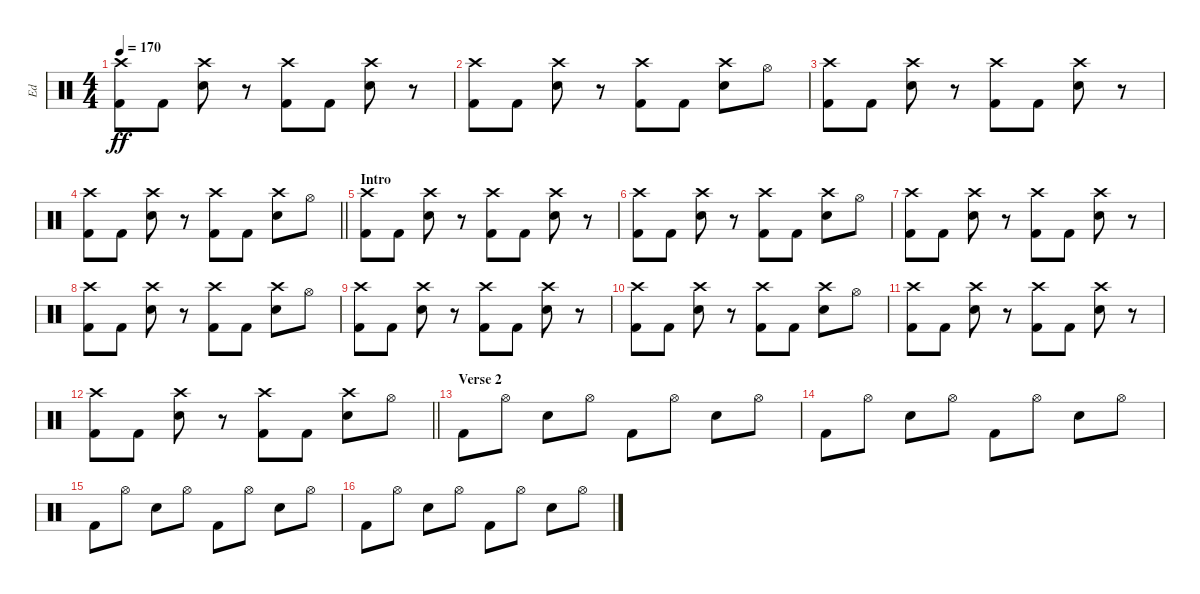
\track ("Ed" "Ed") {instrument percussion}
\staff {score}
\articulation defaults
\ts (4 4)
\tempo 170
\clef neutral
\ks c
("Kick (hit) 2" "Crash high (hit)").8{dy ff} "Kick (hit) 2".8 ("Snare (hit) 2" "Crash high (hit)").8 r.8 ("Kick (hit) 2" "Crash high (hit)").8 "Kick (hit) 2".8 ("Snare (hit) 2" "Crash high (hit)").8 r.8 |
("Kick (hit) 2" "Crash high (hit)").8 "Kick (hit) 2".8 ("Snare (hit) 2" "Crash high (hit)").8 r.8 ("Kick (hit) 2" "Crash high (hit)").8 "Kick (hit) 2".8 ("Snare (hit) 2" "Crash high (hit)").8 "Hi-Hat (open)".8 |
("Kick (hit) 2" "Crash high (hit)").8 "Kick (hit) 2".8 ("Snare (hit) 2" "Crash high (hit)").8 r.8 ("Kick (hit) 2" "Crash high (hit)").8 "Kick (hit) 2".8 ("Snare (hit) 2" "Crash high (hit)").8 r.8 |
\barLineRight lightlight
("Kick (hit) 2" "Crash high (hit)").8 "Kick (hit) 2".8 ("Snare (hit) 2" "Crash high (hit)").8 r.8 ("Kick (hit) 2" "Crash high (hit)").8 "Kick (hit) 2".8 ("Snare (hit) 2" "Crash high (hit)").8 "Hi-Hat (open)".8 |
\section ("" "Intro")
("Kick (hit) 2" "Crash high (hit)").8 "Kick (hit) 2".8 ("Snare (hit) 2" "Crash high (hit)").8 r.8 ("Kick (hit) 2" "Crash high (hit)").8 "Kick (hit) 2".8 ("Snare (hit) 2" "Crash high (hit)").8 r.8 |
("Kick (hit) 2" "Crash high (hit)").8 "Kick (hit) 2".8 ("Snare (hit) 2" "Crash high (hit)").8 r.8 ("Kick (hit) 2" "Crash high (hit)").8 "Kick (hit) 2".8 ("Snare (hit) 2" "Crash high (hit)").8 "Hi-Hat (open)".8 |
("Kick (hit) 2" "Crash high (hit)").8 "Kick (hit) 2".8 ("Snare (hit) 2" "Crash high (hit)").8 r.8 ("Kick (hit) 2" "Crash high (hit)").8 "Kick (hit) 2".8 ("Snare (hit) 2" "Crash high (hit)").8 r.8 |
("Kick (hit) 2" "Crash high (hit)").8 "Kick (hit) 2".8 ("Snare (hit) 2" "Crash high (hit)").8 r.8 ("Kick (hit) 2" "Crash high (hit)").8 "Kick (hit) 2".8 ("Snare (hit) 2" "Crash high (hit)").8 "Hi-Hat (open)".8 |
("Kick (hit) 2" "Crash high (hit)").8 "Kick (hit) 2".8 ("Snare (hit) 2" "Crash high (hit)").8 r.8 ("Kick (hit) 2" "Crash high (hit)").8 "Kick (hit) 2".8 ("Snare (hit) 2" "Crash high (hit)").8 r.8 |
("Kick (hit) 2" "Crash high (hit)").8 "Kick (hit) 2".8 ("Snare (hit) 2" "Crash high (hit)").8 r.8 ("Kick (hit) 2" "Crash high (hit)").8 "Kick (hit) 2".8 ("Snare (hit) 2" "Crash high (hit)").8 "Hi-Hat (open)".8 |
("Kick (hit) 2" "Crash high (hit)").8 "Kick (hit) 2".8 ("Snare (hit) 2" "Crash high (hit)").8 r.8 ("Kick (hit) 2" "Crash high (hit)").8 "Kick (hit) 2".8 ("Snare (hit) 2" "Crash high (hit)").8 r.8 |
\barLineRight lightlight
("Kick (hit) 2" "Crash high (hit)").8 "Kick (hit) 2".8 ("Snare (hit) 2" "Crash high (hit)").8 r.8 ("Kick (hit) 2" "Crash high (hit)").8 "Kick (hit) 2".8 ("Snare (hit) 2" "Crash high (hit)").8 "Hi-Hat (open)".8 |
\section ("" "Verse 2")
"Kick (hit) 2".8 "Hi-Hat (open)".8 "Snare (hit) 2".8 "Hi-Hat (open)".8 "Kick (hit) 2".8 "Hi-Hat (open)".8 "Snare (hit) 2".8 "Hi-Hat (open)".8 |
"Kick (hit) 2".8 "Hi-Hat (open)".8 "Snare (hit) 2".8 "Hi-Hat (open)".8 "Kick (hit) 2".8 "Hi-Hat (open)".8 "Snare (hit) 2".8 "Hi-Hat (open)".8 |
"Kick (hit) 2".8 "Hi-Hat (open)".8 "Snare (hit) 2".8 "Hi-Hat (open)".8 "Kick (hit) 2".8 "Hi-Hat (open)".8 "Snare (hit) 2".8 "Hi-Hat (open)".8 |
"Kick (hit) 2".8 "Hi-Hat (open)".8 "Snare (hit) 2".8 "Hi-Hat (open)".8 "Kick (hit) 2".8 "Hi-Hat (open)".8 "Snare (hit) 2".8 "Hi-Hat (open)".8
